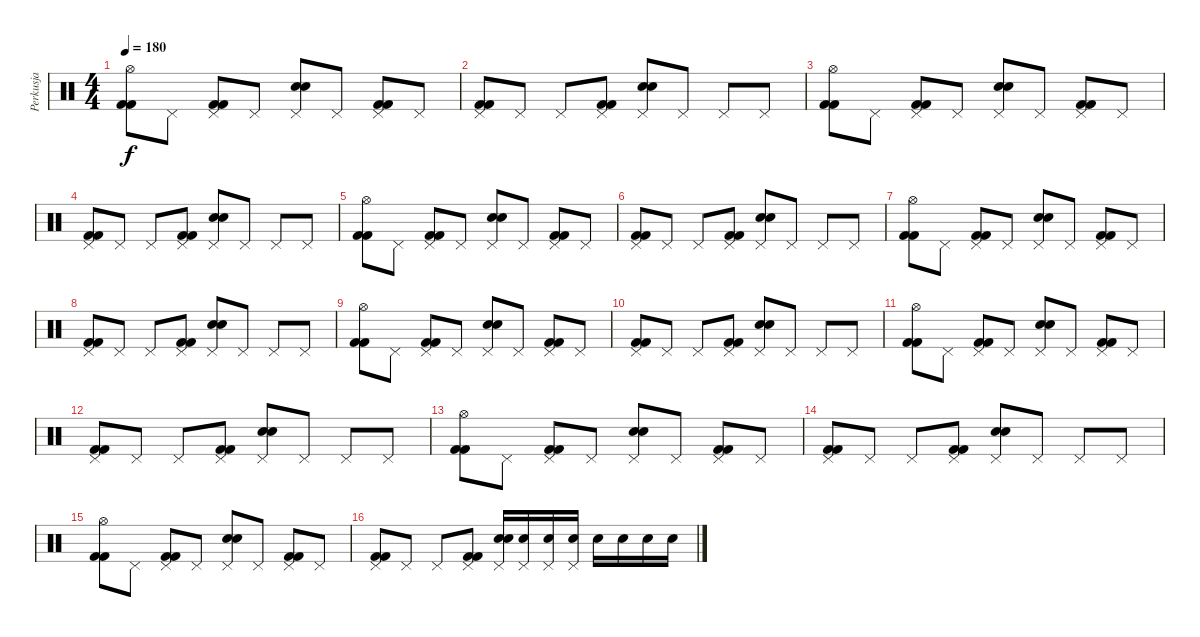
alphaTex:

\track ("Perkusja" "Perkusja") {instrument percussion}
\staff {score}
\articulation defaults
\ts (4 4)
\tempo 180
\clef neutral
\ks c
("Hi-Hat (open)" "Kick (hit) 2" "Kick (hit) 2").8{dy f} "Pedal Hi-Hat (hit)".8 ("Pedal Hi-Hat (hit)" "Kick (hit) 2" "Kick (hit) 2").8 "Pedal Hi-Hat (hit)".8 ("Pedal Hi-Hat (hit)" "Snare (hit) 2" "Snare (hit) 2").8 "Pedal Hi-Hat (hit)".8 ("Pedal Hi-Hat (hit)" "Kick (hit) 2" "Kick (hit) 2").8 "Pedal Hi-Hat (hit)".8 |
("Pedal Hi-Hat (hit)" "Kick (hit) 2" "Kick (hit) 2").8 "Pedal Hi-Hat (hit)".8 "Pedal Hi-Hat (hit)".8 ("Pedal Hi-Hat (hit)" "Kick (hit) 2" "Kick (hit) 2").8 ("Pedal Hi-Hat (hit)" "Snare (hit) 2" "Snare (hit) 2").8 "Pedal Hi-Hat (hit)".8 "Pedal Hi-Hat (hit)".8 "Pedal Hi-Hat (hit)".8 |
("Hi-Hat (open)" "Kick (hit) 2" "Kick (hit) 2").8 "Pedal Hi-Hat (hit)".8 ("Pedal Hi-Hat (hit)" "Kick (hit) 2" "Kick (hit) 2").8 "Pedal Hi-Hat (hit)".8 ("Pedal Hi-Hat (hit)" "Snare (hit) 2" "Snare (hit) 2").8 "Pedal Hi-Hat (hit)".8 ("Pedal Hi-Hat (hit)" "Kick (hit) 2" "Kick (hit) 2").8 "Pedal Hi-Hat (hit)".8 |
("Pedal Hi-Hat (hit)" "Kick (hit) 2" "Kick (hit) 2").8 "Pedal Hi-Hat (hit)".8 "Pedal Hi-Hat (hit)".8 ("Pedal Hi-Hat (hit)" "Kick (hit) 2" "Kick (hit) 2").8 ("Pedal Hi-Hat (hit)" "Snare (hit) 2" "Snare (hit) 2").8 "Pedal Hi-Hat (hit)".8 "Pedal Hi-Hat (hit)".8 "Pedal Hi-Hat (hit)".8 |
("Hi-Hat (open)" "Kick (hit) 2" "Kick (hit) 2").8 "Pedal Hi-Hat (hit)".8 ("Pedal Hi-Hat (hit)" "Kick (hit) 2" "Kick (hit) 2").8 "Pedal Hi-Hat (hit)".8 ("Pedal Hi-Hat (hit)" "Snare (hit) 2" "Snare (hit) 2").8 "Pedal Hi-Hat (hit)".8 ("Pedal Hi-Hat (hit)" "Kick (hit) 2" "Kick (hit) 2").8 "Pedal Hi-Hat (hit)".8 |
("Pedal Hi-Hat (hit)" "Kick (hit) 2" "Kick (hit) 2").8 "Pedal Hi-Hat (hit)".8 "Pedal Hi-Hat (hit)".8 ("Pedal Hi-Hat (hit)" "Kick (hit) 2" "Kick (hit) 2").8 ("Pedal Hi-Hat (hit)" "Snare (hit) 2" "Snare (hit) 2").8 "Pedal Hi-Hat (hit)".8 "Pedal Hi-Hat (hit)".8 "Pedal Hi-Hat (hit)".8 |
("Hi-Hat (open)" "Kick (hit) 2" "Kick (hit) 2").8 "Pedal Hi-Hat (hit)".8 ("Pedal Hi-Hat (hit)" "Kick (hit) 2" "Kick (hit) 2").8 "Pedal Hi-Hat (hit)".8 ("Pedal Hi-Hat (hit)" "Snare (hit) 2" "Snare (hit) 2").8 "Pedal Hi-Hat (hit)".8 ("Pedal Hi-Hat (hit)" "Kick (hit) 2" "Kick (hit) 2").8 "Pedal Hi-Hat (hit)".8 |
("Pedal Hi-Hat (hit)" "Kick (hit) 2" "Kick (hit) 2").8 "Pedal Hi-Hat (hit)".8 "Pedal Hi-Hat (hit)".8 ("Pedal Hi-Hat (hit)" "Kick (hit) 2" "Kick (hit) 2").8 ("Pedal Hi-Hat (hit)" "Snare (hit) 2" "Snare (hit) 2").8 "Pedal Hi-Hat (hit)".8 "Pedal Hi-Hat (hit)".8 "Pedal Hi-Hat (hit)".8 |
("Hi-Hat (open)" "Kick (hit) 2" "Kick (hit) 2").8 "Pedal Hi-Hat (hit)".8 ("Pedal Hi-Hat (hit)" "Kick (hit) 2" "Kick (hit) 2").8 "Pedal Hi-Hat (hit)".8 ("Pedal Hi-Hat (hit)" "Snare (hit) 2" "Snare (hit) 2").8 "Pedal Hi-Hat (hit)".8 ("Pedal Hi-Hat (hit)" "Kick (hit) 2" "Kick (hit) 2").8 "Pedal Hi-Hat (hit)".8 |
("Pedal Hi-Hat (hit)" "Kick (hit) 2" "Kick (hit) 2").8 "Pedal Hi-Hat (hit)".8 "Pedal Hi-Hat (hit)".8 ("Pedal Hi-Hat (hit)" "Kick (hit) 2" "Kick (hit) 2").8 ("Pedal Hi-Hat (hit)" "Snare (hit) 2" "Snare (hit) 2").8 "Pedal Hi-Hat (hit)".8 "Pedal Hi-Hat (hit)".8 "Pedal Hi-Hat (hit)".8 |
("Hi-Hat (open)" "Kick (hit) 2" "Kick (hit) 2").8 "Pedal Hi-Hat (hit)".8 ("Pedal Hi-Hat (hit)" "Kick (hit) 2" "Kick (hit) 2").8 "Pedal Hi-Hat (hit)".8 ("Pedal Hi-Hat (hit)" "Snare (hit) 2" "Snare (hit) 2").8 "Pedal Hi-Hat (hit)".8 ("Pedal Hi-Hat (hit)" "Kick (hit) 2" "Kick (hit) 2").8 "Pedal Hi-Hat (hit)".8 |
("Pedal Hi-Hat (hit)" "Kick (hit) 2" "Kick (hit) 2").8 "Pedal Hi-Hat (hit)".8 "Pedal Hi-Hat (hit)".8 ("Pedal Hi-Hat (hit)" "Kick (hit) 2" "Kick (hit) 2").8 ("Pedal Hi-Hat (hit)" "Snare (hit) 2" "Snare (hit) 2").8 "Pedal Hi-Hat (hit)".8 "Pedal Hi-Hat (hit)".8 "Pedal Hi-Hat (hit)".8 |
("Hi-Hat (open)" "Kick (hit) 2" "Kick (hit) 2").8 "Pedal Hi-Hat (hit)".8 ("Pedal Hi-Hat (hit)" "Kick (hit) 2" "Kick (hit) 2").8 "Pedal Hi-Hat (hit)".8 ("Pedal Hi-Hat (hit)" "Snare (hit) 2" "Snare (hit) 2").8 "Pedal Hi-Hat (hit)".8 ("Pedal Hi-Hat (hit)" "Kick (hit) 2" "Kick (hit) 2").8 "Pedal Hi-Hat (hit)".8 |
("Pedal Hi-Hat (hit)" "Kick (hit) 2" "Kick (hit) 2").8 "Pedal Hi-Hat (hit)".8 "Pedal Hi-Hat (hit)".8 ("Pedal Hi-Hat (hit)" "Kick (hit) 2" "Kick (hit) 2").8 ("Pedal Hi-Hat (hit)" "Snare (hit) 2" "Snare (hit) 2").8 "Pedal Hi-Hat (hit)".8 "Pedal Hi-Hat (hit)".8 "Pedal Hi-Hat (hit)".8 |
("Hi-Hat (open)" "Kick (hit) 2" "Kick (hit) 2").8 "Pedal Hi-Hat (hit)".8 ("Pedal Hi-Hat (hit)" "Kick (hit) 2" "Kick (hit) 2").8 "Pedal Hi-Hat (hit)".8 ("Pedal Hi-Hat (hit)" "Snare (hit) 2" "Snare (hit) 2").8 "Pedal Hi-Hat (hit)".8 ("Pedal Hi-Hat (hit)" "Kick (hit) 2" "Kick (hit) 2").8 "Pedal Hi-Hat (hit)".8 |
("Pedal Hi-Hat (hit)" "Kick (hit) 2" "Kick (hit) 2").8 "Pedal Hi-Hat (hit)".8 "Pedal Hi-Hat (hit)".8 ("Pedal Hi-Hat (hit)" "Kick (hit) 2" "Kick (hit) 2").8 ("Pedal Hi-Hat (hit)" "Snare (hit) 2" "Snare (hit) 2").16 ("Pedal Hi-Hat (hit)" "Snare (hit) 2").16 ("Pedal Hi-Hat (hit)" "Snare (hit) 2").16 ("Pedal Hi-Hat (hit)" "Snare (hit) 2").16 "Snare (hit) 2".16 "Snare (hit) 2".16 "Snare (hit) 2".16 "Snare (hit) 2".16
